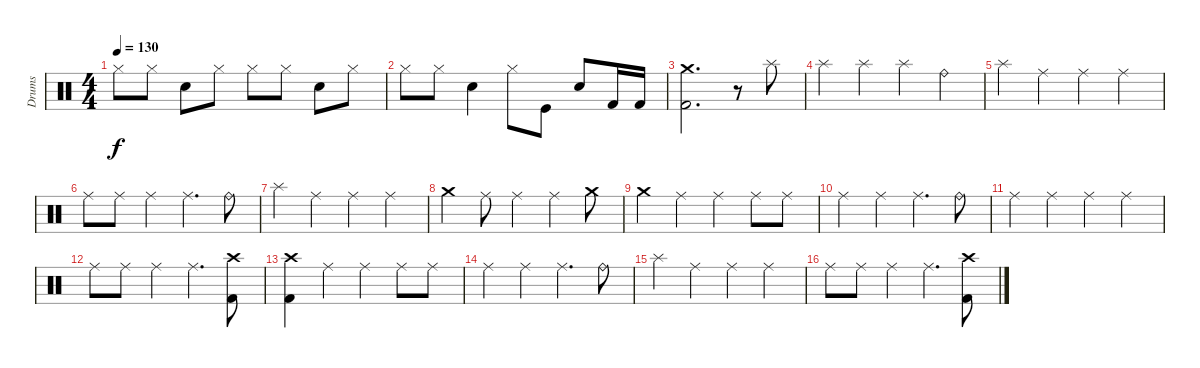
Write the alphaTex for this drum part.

\track ("Drums" "Drums") {instrument percussion}
\staff {score}
\articulation defaults
\ts (4 4)
\tempo 130
\clef neutral
\ks c "Hi-Hat (closed)".8{dy f} "Hi-Hat (closed)".8 "Snare (hit) 2".8 "Hi-Hat (closed)".8 "Hi-Hat (closed)".8 "Hi-Hat (closed)".8 "Snare (hit) 2".8 "Hi-Hat (closed)".8
|
"Hi-Hat (closed)".8 "Hi-Hat (closed)".8 "Snare (hit) 2".4 "Hi-Hat (closed)".8 "Kick (hit)".8 "Snare (hit) 2".8 "Kick (hit) 2".16 "Kick (hit) 2".16 |
("Crash medium (hit)" "Kick (hit) 2").2{d} r.8 "Splash (hit)".8 |
"Splash (hit)".4 "Splash (hit)".4 "Splash (hit)".4 "Ride (bell)".4 |
"Splash (hit)".4 "Ride (middle)".4 "Ride (middle)".4 "Ride (middle)".4 |
"Ride (middle)".8 "Ride (middle)".8 "Ride (middle)".4 "Ride (middle)".4{d} "Ride (bell)".8 |
"Splash (hit)".4 "Ride (middle)".4 "Ride (middle)".4 "Ride (middle)".4 |
"Crash medium (hit)".4 "Ride (middle)".8 "Ride (middle)".4 "Ride (middle)".4 "Crash medium (hit)".8 |
"Crash medium (hit)".4 "Ride (middle)".4 "Ride (middle)".4 "Ride (middle)".8 "Ride (middle)".8 |
"Ride (middle)".4 "Ride (middle)".4 "Ride (middle)".4{d} "Ride (bell)".8 |
"Ride (middle)".4 "Ride (middle)".4 "Ride (middle)".4 "Ride (middle)".4 |
"Ride (middle)".8 "Ride (middle)".8 "Ride (middle)".4 "Ride (middle)".4{d} ("Crash high (hit)" "Kick (hit) 2").8 |
("Crash high (hit)" "Kick (hit) 2").4 "Ride (middle)".4 "Ride (middle)".4 "Ride (middle)".8 "Ride (middle)".8 |
"Ride (middle)".4 "Ride (middle)".4 "Ride (middle)".4{d} "Ride (bell)".8 |
"Splash (hit)".4 "Ride (middle)".4 "Ride (middle)".4 "Ride (middle)".4 |
"Ride (middle)".8 "Ride (middle)".8 "Ride (middle)".4 "Ride (middle)".4{d} ("Crash high (hit)" "Kick (hit) 2").8
